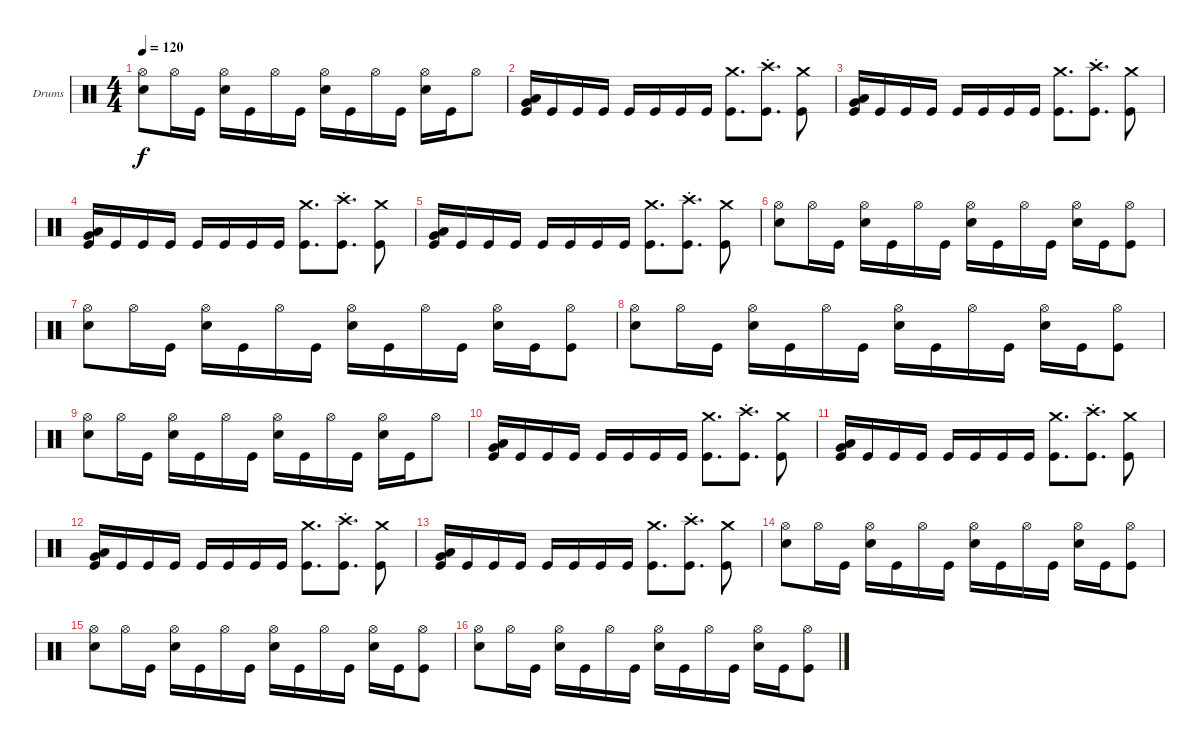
\bracketExtendMode groupsimilarinstruments
\firstSystemTrackNameOrientation horizontal
\otherSystemsTrackNameOrientation horizontal
\track ("Drumkit" "Drums") {instrument percussion}
\staff {score}
\articulation defaults
\ts (4 4)
\tempo 120
\clef neutral
\ks c
("Hi-Hat (open)" "Snare (hit) 2").8{dy f} "Hi-Hat (open)".16 "Kick (hit)".16 ("Hi-Hat (open)" "Snare (hit) 2").16 "Kick (hit)".16 "Hi-Hat (open)".16 "Kick (hit)".16 ("Hi-Hat (open)" "Snare (hit) 2").16 "Kick (hit)".16 "Hi-Hat (open)".16 "Kick (hit)".16 ("Hi-Hat (open)" "Snare (hit) 2").16 "Kick (hit)".16 "Hi-Hat (open)".8 |
("Low Tom (hit)" "Very Low Tom (hit)" "Kick (hit)").16 "Kick (hit)".16 "Kick (hit)".16 "Kick (hit)".16 "Kick (hit)".16 "Kick (hit)".16 "Kick (hit)".16 "Kick (hit)".16 ("Crash medium (hit)" "Kick (hit)").8{d} ("Crash high (hit)" "Kick (hit)"{st}).8{d} ("Crash medium (hit)" "Kick (hit)").8 |
("Low Tom (hit)" "Very Low Tom (hit)" "Kick (hit)").16 "Kick (hit)".16 "Kick (hit)".16 "Kick (hit)".16 "Kick (hit)".16 "Kick (hit)".16 "Kick (hit)".16 "Kick (hit)".16 ("Crash medium (hit)" "Kick (hit)").8{d} ("Crash high (hit)" "Kick (hit)"{st}).8{d} ("Crash medium (hit)" "Kick (hit)").8 |
("Low Tom (hit)" "Very Low Tom (hit)" "Kick (hit)").16 "Kick (hit)".16 "Kick (hit)".16 "Kick (hit)".16 "Kick (hit)".16 "Kick (hit)".16 "Kick (hit)".16 "Kick (hit)".16 ("Crash medium (hit)" "Kick (hit)").8{d} ("Crash high (hit)" "Kick (hit)"{st}).8{d} ("Crash medium (hit)" "Kick (hit)").8 |
("Low Tom (hit)" "Very Low Tom (hit)" "Kick (hit)").16 "Kick (hit)".16 "Kick (hit)".16 "Kick (hit)".16 "Kick (hit)".16 "Kick (hit)".16 "Kick (hit)".16 "Kick (hit)".16 ("Crash medium (hit)" "Kick (hit)").8{d} ("Crash high (hit)" "Kick (hit)"{st}).8{d} ("Crash medium (hit)" "Kick (hit)").8 |
("Hi-Hat (open)" "Snare (hit) 2").8 "Hi-Hat (open)".16 "Kick (hit)".16 ("Hi-Hat (open)" "Snare (hit) 2").16 "Kick (hit)".16 "Hi-Hat (open)".16 "Kick (hit)".16 ("Hi-Hat (open)" "Snare (hit) 2").16 "Kick (hit)".16 "Hi-Hat (open)".16 "Kick (hit)".16 ("Hi-Hat (open)" "Snare (hit) 2").16 "Kick (hit)".16 ("Hi-Hat (open)" "Kick (hit)").8 |
("Hi-Hat (open)" "Snare (hit) 2").8 "Hi-Hat (open)".16 "Kick (hit)".16 ("Hi-Hat (open)" "Snare (hit) 2").16 "Kick (hit)".16 "Hi-Hat (open)".16 "Kick (hit)".16 ("Hi-Hat (open)" "Snare (hit) 2").16 "Kick (hit)".16 "Hi-Hat (open)".16 "Kick (hit)".16 ("Hi-Hat (open)" "Snare (hit) 2").16 "Kick (hit)".16 ("Hi-Hat (open)" "Kick (hit)").8 |
("Hi-Hat (open)" "Snare (hit) 2").8 "Hi-Hat (open)".16 "Kick (hit)".16 ("Hi-Hat (open)" "Snare (hit) 2").16 "Kick (hit)".16 "Hi-Hat (open)".16 "Kick (hit)".16 ("Hi-Hat (open)" "Snare (hit) 2").16 "Kick (hit)".16 "Hi-Hat (open)".16 "Kick (hit)".16 ("Hi-Hat (open)" "Snare (hit) 2").16 "Kick (hit)".16 ("Hi-Hat (open)" "Kick (hit)").8 |
("Hi-Hat (open)" "Snare (hit) 2").8 "Hi-Hat (open)".16 "Kick (hit)".16 ("Hi-Hat (open)" "Snare (hit) 2").16 "Kick (hit)".16 "Hi-Hat (open)".16 "Kick (hit)".16 ("Hi-Hat (open)" "Snare (hit) 2").16 "Kick (hit)".16 "Hi-Hat (open)".16 "Kick (hit)".16 ("Hi-Hat (open)" "Snare (hit) 2").16 "Kick (hit)".16 "Hi-Hat (open)".8 |
("Low Tom (hit)" "Very Low Tom (hit)" "Kick (hit)").16 "Kick (hit)".16 "Kick (hit)".16 "Kick (hit)".16 "Kick (hit)".16 "Kick (hit)".16 "Kick (hit)".16 "Kick (hit)".16 ("Crash medium (hit)" "Kick (hit)").8{d} ("Crash high (hit)" "Kick (hit)"{st}).8{d} ("Crash medium (hit)" "Kick (hit)").8 |
("Low Tom (hit)" "Very Low Tom (hit)" "Kick (hit)").16 "Kick (hit)".16 "Kick (hit)".16 "Kick (hit)".16 "Kick (hit)".16 "Kick (hit)".16 "Kick (hit)".16 "Kick (hit)".16 ("Crash medium (hit)" "Kick (hit)").8{d} ("Crash high (hit)" "Kick (hit)"{st}).8{d} ("Crash medium (hit)" "Kick (hit)").8 |
("Low Tom (hit)" "Very Low Tom (hit)" "Kick (hit)").16 "Kick (hit)".16 "Kick (hit)".16 "Kick (hit)".16 "Kick (hit)".16 "Kick (hit)".16 "Kick (hit)".16 "Kick (hit)".16 ("Crash medium (hit)" "Kick (hit)").8{d} ("Crash high (hit)" "Kick (hit)"{st}).8{d} ("Crash medium (hit)" "Kick (hit)").8 |
("Low Tom (hit)" "Very Low Tom (hit)" "Kick (hit)").16 "Kick (hit)".16 "Kick (hit)".16 "Kick (hit)".16 "Kick (hit)".16 "Kick (hit)".16 "Kick (hit)".16 "Kick (hit)".16 ("Crash medium (hit)" "Kick (hit)").8{d} ("Crash high (hit)" "Kick (hit)"{st}).8{d} ("Crash medium (hit)" "Kick (hit)").8 |
("Hi-Hat (open)" "Snare (hit) 2").8 "Hi-Hat (open)".16 "Kick (hit)".16 ("Hi-Hat (open)" "Snare (hit) 2").16 "Kick (hit)".16 "Hi-Hat (open)".16 "Kick (hit)".16 ("Hi-Hat (open)" "Snare (hit) 2").16 "Kick (hit)".16 "Hi-Hat (open)".16 "Kick (hit)".16 ("Hi-Hat (open)" "Snare (hit) 2").16 "Kick (hit)".16 ("Hi-Hat (open)" "Kick (hit)").8 |
("Hi-Hat (open)" "Snare (hit) 2").8 "Hi-Hat (open)".16 "Kick (hit)".16 ("Hi-Hat (open)" "Snare (hit) 2").16 "Kick (hit)".16 "Hi-Hat (open)".16 "Kick (hit)".16 ("Hi-Hat (open)" "Snare (hit) 2").16 "Kick (hit)".16 "Hi-Hat (open)".16 "Kick (hit)".16 ("Hi-Hat (open)" "Snare (hit) 2").16 "Kick (hit)".16 ("Hi-Hat (open)" "Kick (hit)").8 |
("Hi-Hat (open)" "Snare (hit) 2").8 "Hi-Hat (open)".16 "Kick (hit)".16 ("Hi-Hat (open)" "Snare (hit) 2").16 "Kick (hit)".16 "Hi-Hat (open)".16 "Kick (hit)".16 ("Hi-Hat (open)" "Snare (hit) 2").16 "Kick (hit)".16 "Hi-Hat (open)".16 "Kick (hit)".16 ("Hi-Hat (open)" "Snare (hit) 2").16 "Kick (hit)".16 ("Hi-Hat (open)" "Kick (hit)").8
